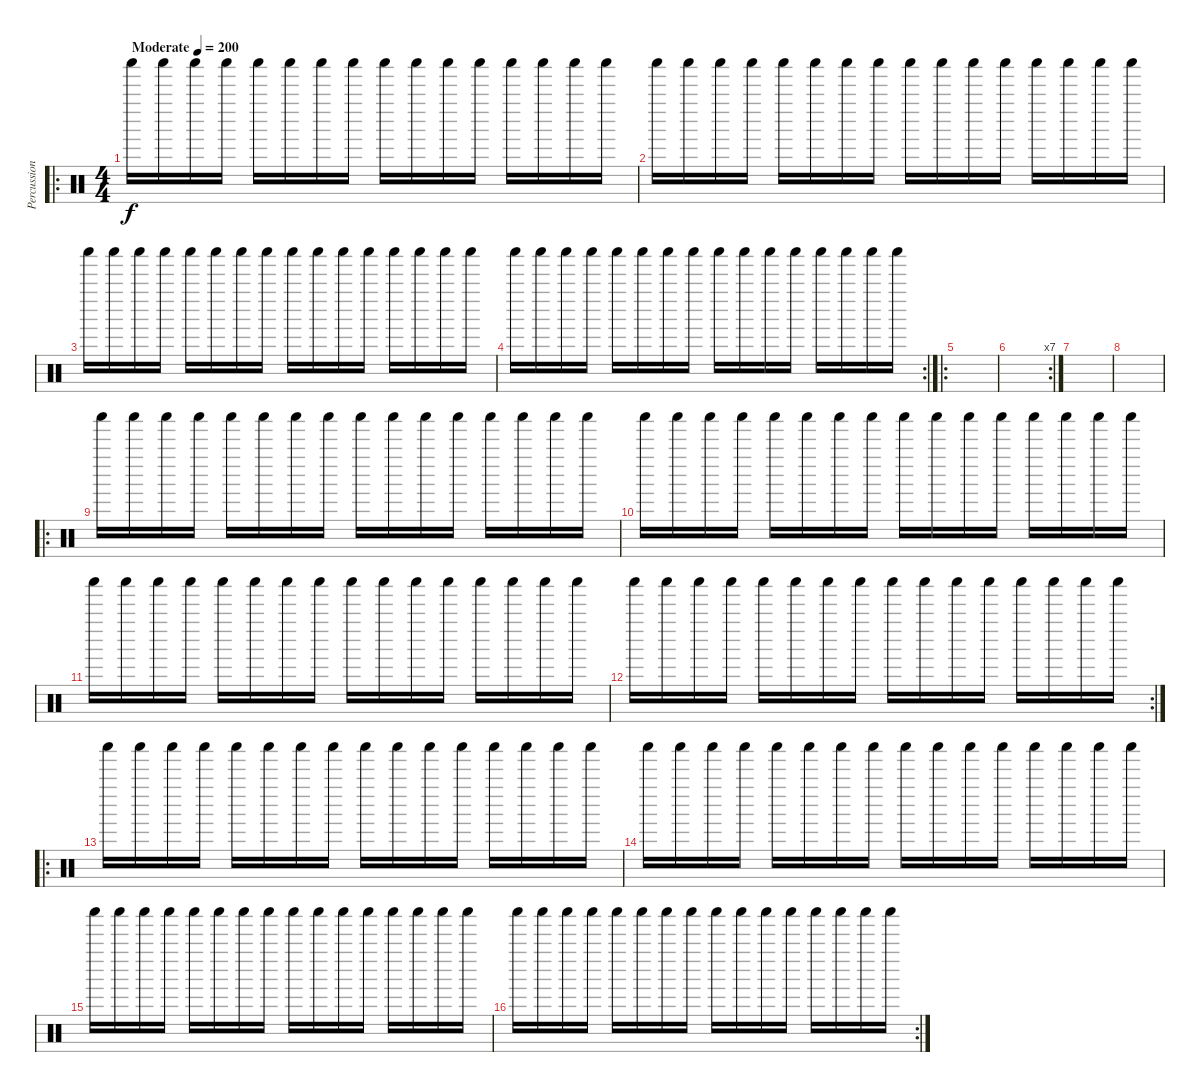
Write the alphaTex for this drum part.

\track ("Percussion" "Percussion") {instrument percussion}
\staff {score}
\articulation defaults
\ro
\ts (4 4)
\tempo (200 "Moderate")
\clef neutral
\ks c "Shaker (hit)".16{dy f} "Shaker (hit)".16 "Shaker (hit)".16 "Shaker (hit)".16 "Shaker (hit)".16 "Shaker (hit)".16 "Shaker (hit)".16 "Shaker (hit)".16 "Shaker (hit)".16 "Shaker (hit)".16 "Shaker (hit)".16 "Shaker (hit)".16 "Shaker (hit)".16 "Shaker (hit)".16 "Shaker (hit)".16 "Shaker (hit)".16
|
"Shaker (hit)".16 "Shaker (hit)".16 "Shaker (hit)".16 "Shaker (hit)".16 "Shaker (hit)".16 "Shaker (hit)".16 "Shaker (hit)".16 "Shaker (hit)".16 "Shaker (hit)".16 "Shaker (hit)".16 "Shaker (hit)".16 "Shaker (hit)".16 "Shaker (hit)".16 "Shaker (hit)".16 "Shaker (hit)".16 "Shaker (hit)".16 |
"Shaker (hit)".16 "Shaker (hit)".16 "Shaker (hit)".16 "Shaker (hit)".16 "Shaker (hit)".16 "Shaker (hit)".16 "Shaker (hit)".16 "Shaker (hit)".16 "Shaker (hit)".16 "Shaker (hit)".16 "Shaker (hit)".16 "Shaker (hit)".16 "Shaker (hit)".16 "Shaker (hit)".16 "Shaker (hit)".16 "Shaker (hit)".16 |
\rc 2 "Shaker (hit)".16 "Shaker (hit)".16 "Shaker (hit)".16 "Shaker (hit)".16 "Shaker (hit)".16 "Shaker (hit)".16 "Shaker (hit)".16 "Shaker (hit)".16 "Shaker (hit)".16 "Shaker (hit)".16 "Shaker (hit)".16 "Shaker (hit)".16 "Shaker (hit)".16 "Shaker (hit)".16 "Shaker (hit)".16 "Shaker (hit)".16
|
\ro
|
\rc 7
|
|
|
\ro "Shaker (hit)".16 "Shaker (hit)".16 "Shaker (hit)".16 "Shaker (hit)".16 "Shaker (hit)".16 "Shaker (hit)".16 "Shaker (hit)".16 "Shaker (hit)".16 "Shaker (hit)".16 "Shaker (hit)".16 "Shaker (hit)".16 "Shaker (hit)".16 "Shaker (hit)".16 "Shaker (hit)".16 "Shaker (hit)".16 "Shaker (hit)".16
|
"Shaker (hit)".16 "Shaker (hit)".16 "Shaker (hit)".16 "Shaker (hit)".16 "Shaker (hit)".16 "Shaker (hit)".16 "Shaker (hit)".16 "Shaker (hit)".16 "Shaker (hit)".16 "Shaker (hit)".16 "Shaker (hit)".16 "Shaker (hit)".16 "Shaker (hit)".16 "Shaker (hit)".16 "Shaker (hit)".16 "Shaker (hit)".16 |
"Shaker (hit)".16 "Shaker (hit)".16 "Shaker (hit)".16 "Shaker (hit)".16 "Shaker (hit)".16 "Shaker (hit)".16 "Shaker (hit)".16 "Shaker (hit)".16 "Shaker (hit)".16 "Shaker (hit)".16 "Shaker (hit)".16 "Shaker (hit)".16 "Shaker (hit)".16 "Shaker (hit)".16 "Shaker (hit)".16 "Shaker (hit)".16 |
\rc 2 "Shaker (hit)".16 "Shaker (hit)".16 "Shaker (hit)".16 "Shaker (hit)".16 "Shaker (hit)".16 "Shaker (hit)".16 "Shaker (hit)".16 "Shaker (hit)".16 "Shaker (hit)".16 "Shaker (hit)".16 "Shaker (hit)".16 "Shaker (hit)".16 "Shaker (hit)".16 "Shaker (hit)".16 "Shaker (hit)".16 "Shaker (hit)".16
|
\ro "Shaker (hit)".16 "Shaker (hit)".16 "Shaker (hit)".16 "Shaker (hit)".16 "Shaker (hit)".16 "Shaker (hit)".16 "Shaker (hit)".16 "Shaker (hit)".16 "Shaker (hit)".16 "Shaker (hit)".16 "Shaker (hit)".16 "Shaker (hit)".16 "Shaker (hit)".16 "Shaker (hit)".16 "Shaker (hit)".16 "Shaker (hit)".16
|
"Shaker (hit)".16 "Shaker (hit)".16 "Shaker (hit)".16 "Shaker (hit)".16 "Shaker (hit)".16 "Shaker (hit)".16 "Shaker (hit)".16 "Shaker (hit)".16 "Shaker (hit)".16 "Shaker (hit)".16 "Shaker (hit)".16 "Shaker (hit)".16 "Shaker (hit)".16 "Shaker (hit)".16 "Shaker (hit)".16 "Shaker (hit)".16 |
"Shaker (hit)".16 "Shaker (hit)".16 "Shaker (hit)".16 "Shaker (hit)".16 "Shaker (hit)".16 "Shaker (hit)".16 "Shaker (hit)".16 "Shaker (hit)".16 "Shaker (hit)".16 "Shaker (hit)".16 "Shaker (hit)".16 "Shaker (hit)".16 "Shaker (hit)".16 "Shaker (hit)".16 "Shaker (hit)".16 "Shaker (hit)".16 |
\rc 2 "Shaker (hit)".16 "Shaker (hit)".16 "Shaker (hit)".16 "Shaker (hit)".16 "Shaker (hit)".16 "Shaker (hit)".16 "Shaker (hit)".16 "Shaker (hit)".16 "Shaker (hit)".16 "Shaker (hit)".16 "Shaker (hit)".16 "Shaker (hit)".16 "Shaker (hit)".16 "Shaker (hit)".16 "Shaker (hit)".16 "Shaker (hit)".16
